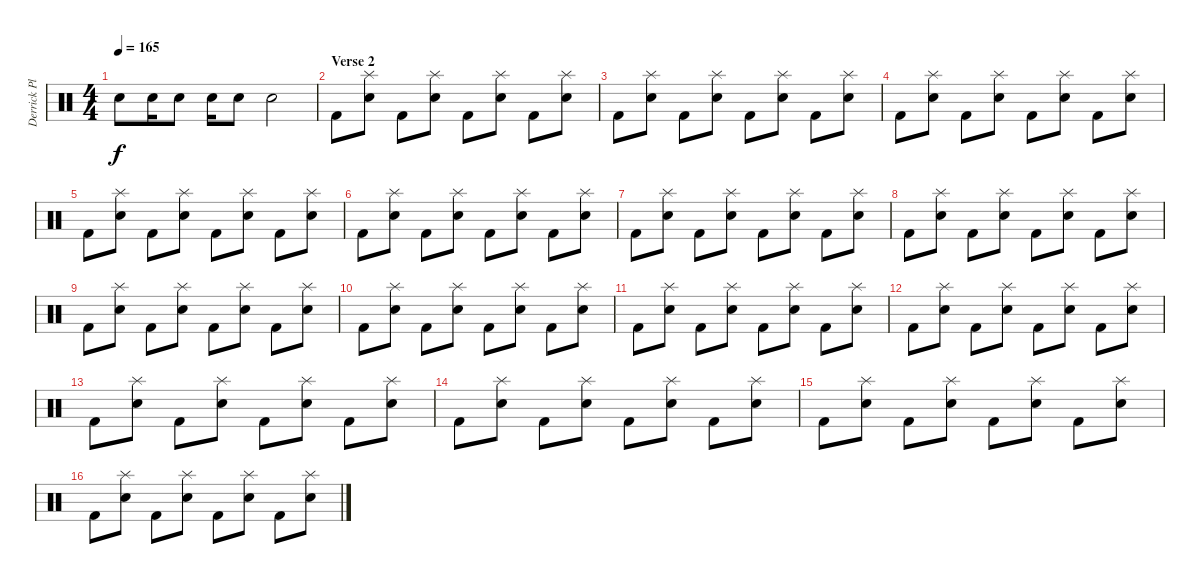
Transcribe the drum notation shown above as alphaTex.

\track ("Derrick Plourde (R.I.P.)" "Derrick Pl") {instrument percussion}
\staff {score}
\articulation defaults
\ts (4 4)
\tempo 165
\clef neutral
\ks c "Electric Snare (hit)".8{dy f} "Electric Snare (hit)".16 "Electric Snare (hit)".8 "Electric Snare (hit)".16 "Electric Snare (hit)".8 "Electric Snare (hit)".2
|
\section ("" "Verse 2")
"Kick (hit) 2".8 ("Electric Snare (hit)" "Splash (hit)").8 "Kick (hit) 2".8 ("Electric Snare (hit)" "Splash (hit)").8 "Kick (hit) 2".8 ("Electric Snare (hit)" "Splash (hit)").8 "Kick (hit) 2".8 ("Electric Snare (hit)" "Splash (hit)").8 |
"Kick (hit) 2".8 ("Electric Snare (hit)" "Splash (hit)").8 "Kick (hit) 2".8 ("Electric Snare (hit)" "Splash (hit)").8 "Kick (hit) 2".8 ("Electric Snare (hit)" "Splash (hit)").8 "Kick (hit) 2".8 ("Electric Snare (hit)" "Splash (hit)").8 |
"Kick (hit) 2".8 ("Electric Snare (hit)" "Splash (hit)").8 "Kick (hit) 2".8 ("Electric Snare (hit)" "Splash (hit)").8 "Kick (hit) 2".8 ("Electric Snare (hit)" "Splash (hit)").8 "Kick (hit) 2".8 ("Electric Snare (hit)" "Splash (hit)").8 |
"Kick (hit) 2".8 ("Electric Snare (hit)" "Splash (hit)").8 "Kick (hit) 2".8 ("Electric Snare (hit)" "Splash (hit)").8 "Kick (hit) 2".8 ("Electric Snare (hit)" "Splash (hit)").8 "Kick (hit) 2".8 ("Electric Snare (hit)" "Splash (hit)").8 |
"Kick (hit) 2".8 ("Electric Snare (hit)" "Splash (hit)").8 "Kick (hit) 2".8 ("Electric Snare (hit)" "Splash (hit)").8 "Kick (hit) 2".8 ("Electric Snare (hit)" "Splash (hit)").8 "Kick (hit) 2".8 ("Electric Snare (hit)" "Splash (hit)").8 |
"Kick (hit) 2".8 ("Electric Snare (hit)" "Splash (hit)").8 "Kick (hit) 2".8 ("Electric Snare (hit)" "Splash (hit)").8 "Kick (hit) 2".8 ("Electric Snare (hit)" "Splash (hit)").8 "Kick (hit) 2".8 ("Electric Snare (hit)" "Splash (hit)").8 |
"Kick (hit) 2".8 ("Electric Snare (hit)" "Splash (hit)").8 "Kick (hit) 2".8 ("Electric Snare (hit)" "Splash (hit)").8 "Kick (hit) 2".8 ("Electric Snare (hit)" "Splash (hit)").8 "Kick (hit) 2".8 ("Electric Snare (hit)" "Splash (hit)").8 |
"Kick (hit) 2".8 ("Electric Snare (hit)" "Splash (hit)").8 "Kick (hit) 2".8 ("Electric Snare (hit)" "Splash (hit)").8 "Kick (hit) 2".8 ("Electric Snare (hit)" "Splash (hit)").8 "Kick (hit) 2".8 ("Electric Snare (hit)" "Splash (hit)").8 |
"Kick (hit) 2".8 ("Electric Snare (hit)" "Splash (hit)").8 "Kick (hit) 2".8 ("Electric Snare (hit)" "Splash (hit)").8 "Kick (hit) 2".8 ("Electric Snare (hit)" "Splash (hit)").8 "Kick (hit) 2".8 ("Electric Snare (hit)" "Splash (hit)").8 |
"Kick (hit) 2".8 ("Electric Snare (hit)" "Splash (hit)").8 "Kick (hit) 2".8 ("Electric Snare (hit)" "Splash (hit)").8 "Kick (hit) 2".8 ("Electric Snare (hit)" "Splash (hit)").8 "Kick (hit) 2".8 ("Electric Snare (hit)" "Splash (hit)").8 |
"Kick (hit) 2".8 ("Electric Snare (hit)" "Splash (hit)").8 "Kick (hit) 2".8 ("Electric Snare (hit)" "Splash (hit)").8 "Kick (hit) 2".8 ("Electric Snare (hit)" "Splash (hit)").8 "Kick (hit) 2".8 ("Electric Snare (hit)" "Splash (hit)").8 |
"Kick (hit) 2".8 ("Electric Snare (hit)" "Splash (hit)").8 "Kick (hit) 2".8 ("Electric Snare (hit)" "Splash (hit)").8 "Kick (hit) 2".8 ("Electric Snare (hit)" "Splash (hit)").8 "Kick (hit) 2".8 ("Electric Snare (hit)" "Splash (hit)").8 |
"Kick (hit) 2".8 ("Electric Snare (hit)" "Splash (hit)").8 "Kick (hit) 2".8 ("Electric Snare (hit)" "Splash (hit)").8 "Kick (hit) 2".8 ("Electric Snare (hit)" "Splash (hit)").8 "Kick (hit) 2".8 ("Electric Snare (hit)" "Splash (hit)").8 |
"Kick (hit) 2".8 ("Electric Snare (hit)" "Splash (hit)").8 "Kick (hit) 2".8 ("Electric Snare (hit)" "Splash (hit)").8 "Kick (hit) 2".8 ("Electric Snare (hit)" "Splash (hit)").8 "Kick (hit) 2".8 ("Electric Snare (hit)" "Splash (hit)").8 |
"Kick (hit) 2".8 ("Electric Snare (hit)" "Splash (hit)").8 "Kick (hit) 2".8 ("Electric Snare (hit)" "Splash (hit)").8 "Kick (hit) 2".8 ("Electric Snare (hit)" "Splash (hit)").8 "Kick (hit) 2".8 ("Electric Snare (hit)" "Splash (hit)").8
